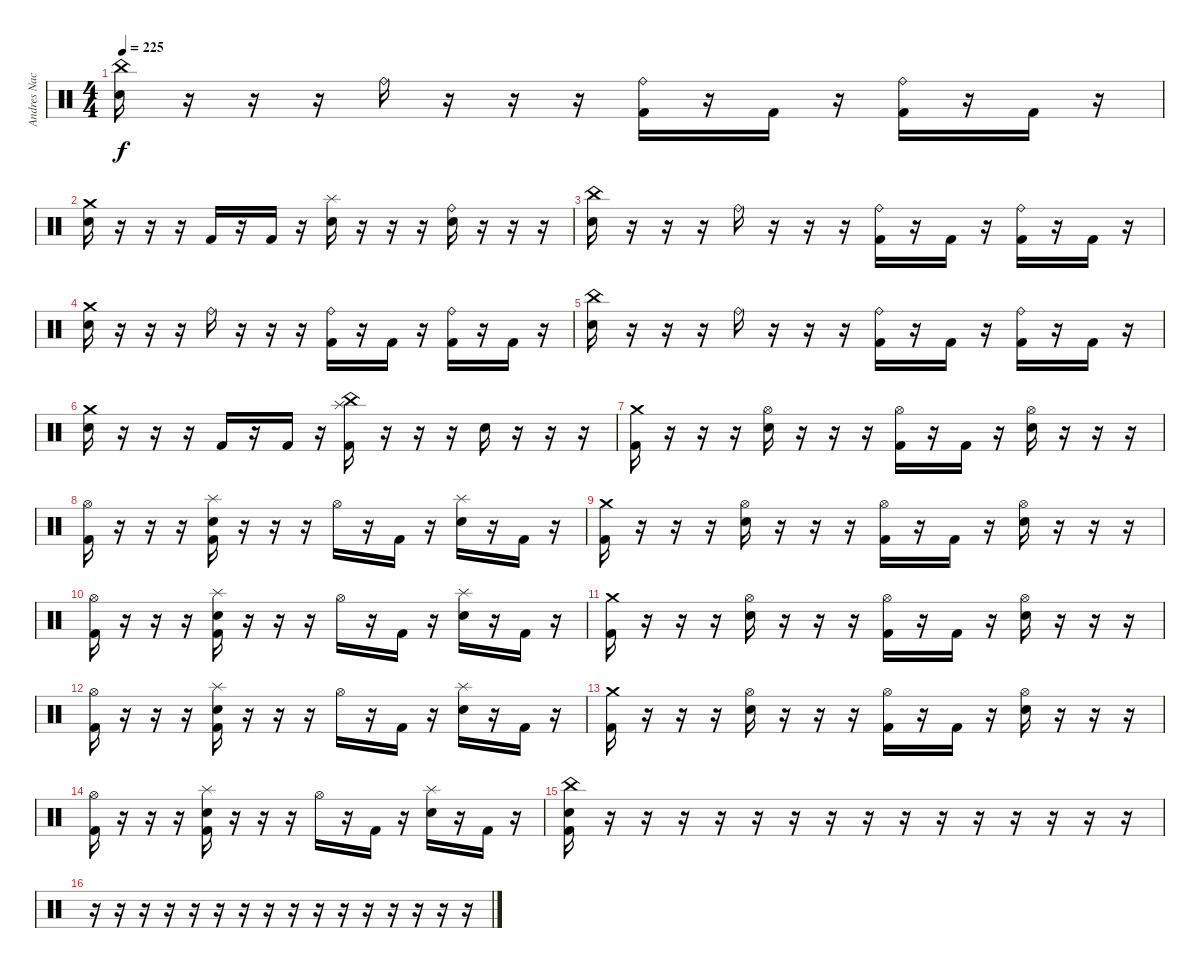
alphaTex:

\track ("Andres Nacrur" "Andres Nac") {instrument percussion}
\staff {score}
\articulation defaults
\ts (4 4)
\tempo 225
\clef neutral
\ks c
("China (hit)" "Snare (hit) 2").16{dy f} r.16 r.16 r.16 "Ride (bell)".16 r.16 r.16 r.16 ("Ride (bell)" "Kick (hit) 2").16 r.16 "Kick (hit) 2".16 r.16 ("Ride (bell)" "Kick (hit) 2").16 r.16 "Kick (hit) 2".16 r.16 |
("Crash medium (hit)" "Snare (hit) 2").16 r.16 r.16 r.16 "Kick (hit) 2".16 r.16 "Kick (hit) 2".16 r.16 ("Splash (hit)" "Snare (hit) 2").16 r.16 r.16 r.16 ("Ride (bell)" "Snare (hit) 2").16 r.16 r.16 r.16 |
("China (hit)" "Snare (hit) 2").16 r.16 r.16 r.16 "Ride (bell)".16 r.16 r.16 r.16 ("Ride (bell)" "Kick (hit) 2").16 r.16 "Kick (hit) 2".16 r.16 ("Ride (bell)" "Kick (hit) 2").16 r.16 "Kick (hit) 2".16 r.16 |
("Crash medium (hit)" "Snare (hit) 2").16 r.16 r.16 r.16 "Ride (bell)".16 r.16 r.16 r.16 ("Ride (bell)" "Kick (hit) 2").16 r.16 "Kick (hit) 2".16 r.16 ("Ride (bell)" "Kick (hit) 2").16 r.16 "Kick (hit) 2".16 r.16 |
("China (hit)" "Snare (hit) 2").16 r.16 r.16 r.16 "Ride (bell)".16 r.16 r.16 r.16 ("Ride (bell)" "Kick (hit) 2").16 r.16 "Kick (hit) 2".16 r.16 ("Ride (bell)" "Kick (hit) 2").16 r.16 "Kick (hit) 2".16 r.16 |
("Crash medium (hit)" "Snare (hit) 2").16 r.16 r.16 r.16 "Kick (hit) 2".16 r.16 "Kick (hit) 2".16 r.16 ("Splash (hit)" "China (hit)" "Kick (hit) 2").16 r.16 r.16 r.16 "Snare (hit) 2".16 r.16 r.16 r.16 |
("Crash medium (hit)" "Kick (hit) 2").16 r.16 r.16 r.16 ("Hi-Hat (open)" "Snare (hit) 2").16 r.16 r.16 r.16 ("Hi-Hat (open)" "Kick (hit) 2").16 r.16 "Kick (hit) 2".16 r.16 ("Hi-Hat (open)" "Snare (hit) 2").16 r.16 r.16 r.16 |
("Hi-Hat (open)" "Kick (hit) 2").16 r.16 r.16 r.16 ("Splash (hit)" "Snare (hit) 2" "Kick (hit) 2").16 r.16 r.16 r.16 "Hi-Hat (open)".16 r.16 "Kick (hit) 2".16 r.16 ("Splash (hit)" "Snare (hit) 2").16 r.16 "Kick (hit) 2".16 r.16 |
("Crash medium (hit)" "Kick (hit) 2").16 r.16 r.16 r.16 ("Hi-Hat (open)" "Snare (hit) 2").16 r.16 r.16 r.16 ("Hi-Hat (open)" "Kick (hit) 2").16 r.16 "Kick (hit) 2".16 r.16 ("Hi-Hat (open)" "Snare (hit) 2").16 r.16 r.16 r.16 |
("Hi-Hat (open)" "Kick (hit) 2").16 r.16 r.16 r.16 ("Splash (hit)" "Snare (hit) 2" "Kick (hit) 2").16 r.16 r.16 r.16 "Hi-Hat (open)".16 r.16 "Kick (hit) 2".16 r.16 ("Splash (hit)" "Snare (hit) 2").16 r.16 "Kick (hit) 2".16 r.16 |
("Crash medium (hit)" "Kick (hit) 2").16 r.16 r.16 r.16 ("Hi-Hat (open)" "Snare (hit) 2").16 r.16 r.16 r.16 ("Hi-Hat (open)" "Kick (hit) 2").16 r.16 "Kick (hit) 2".16 r.16 ("Hi-Hat (open)" "Snare (hit) 2").16 r.16 r.16 r.16 |
("Hi-Hat (open)" "Kick (hit) 2").16 r.16 r.16 r.16 ("Splash (hit)" "Snare (hit) 2" "Kick (hit) 2").16 r.16 r.16 r.16 "Hi-Hat (open)".16 r.16 "Kick (hit) 2".16 r.16 ("Splash (hit)" "Snare (hit) 2").16 r.16 "Kick (hit) 2".16 r.16 |
("Crash medium (hit)" "Kick (hit) 2").16 r.16 r.16 r.16 ("Hi-Hat (open)" "Snare (hit) 2").16 r.16 r.16 r.16 ("Hi-Hat (open)" "Kick (hit) 2").16 r.16 "Kick (hit) 2".16 r.16 ("Hi-Hat (open)" "Snare (hit) 2").16 r.16 r.16 r.16 |
("Hi-Hat (open)" "Kick (hit) 2").16 r.16 r.16 r.16 ("Splash (hit)" "Snare (hit) 2" "Kick (hit) 2").16 r.16 r.16 r.16 "Hi-Hat (open)".16 r.16 "Kick (hit) 2".16 r.16 ("Splash (hit)" "Snare (hit) 2").16 r.16 "Kick (hit) 2".16 r.16 |
("China (hit)" "Snare (hit) 2" "Kick (hit) 2").16 r.16 r.16 r.16 r.16 r.16 r.16 r.16 r.16 r.16 r.16 r.16 r.16 r.16 r.16 r.16 |
r.16 r.16 r.16 r.16 r.16 r.16 r.16 r.16 r.16 r.16 r.16 r.16 r.16 r.16 r.16 r.16
